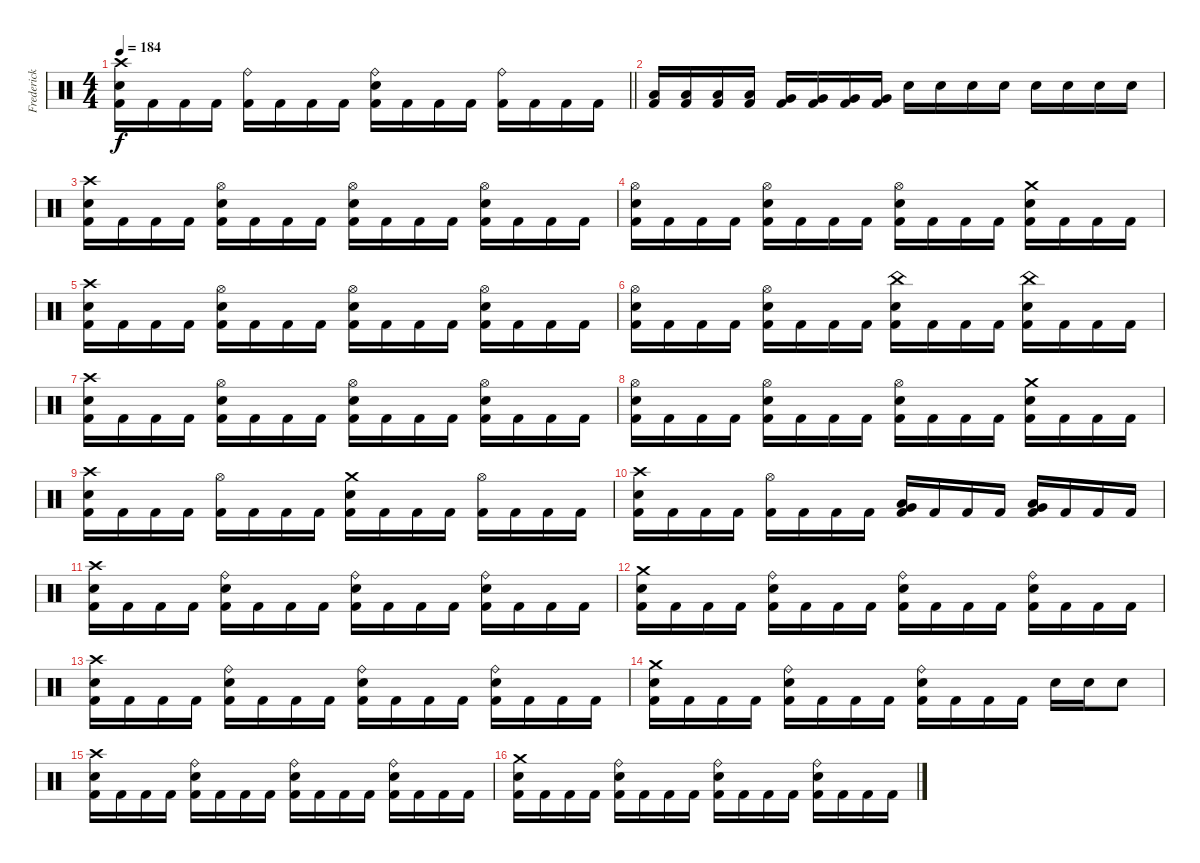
\track ("Frederick Ehmke" "Frederick ") {instrument percussion}
\staff {score}
\articulation defaults
\ts (4 4)
\tempo 184
\clef neutral
\barLineRight lightlight
\ks c
("Electric Snare (hit)" "Kick (hit) 2" "Crash high (hit)").16{dy f} "Kick (hit) 2".16 "Kick (hit) 2".16 "Kick (hit) 2".16 ("Kick (hit) 2" "Ride (bell)").16 "Kick (hit) 2".16 "Kick (hit) 2".16 "Kick (hit) 2".16 ("Electric Snare (hit)" "Kick (hit) 2" "Ride (bell)").16 "Kick (hit) 2".16 "Kick (hit) 2".16 "Kick (hit) 2".16 ("Kick (hit) 2" "Ride (bell)").16 "Kick (hit) 2".16 "Kick (hit) 2".16 "Kick (hit) 2".16 |
("Kick (hit) 2" "Low Tom (hit)").16 ("Kick (hit) 2" "Low Tom (hit)").16 ("Kick (hit) 2" "Low Tom (hit)").16 ("Kick (hit) 2" "Low Tom (hit)").16 ("Kick (hit) 2" "Very Low Tom (hit)").16 ("Kick (hit) 2" "Very Low Tom (hit)").16 ("Kick (hit) 2" "Very Low Tom (hit)").16 ("Kick (hit) 2" "Very Low Tom (hit)").16 "Electric Snare (hit)".16 "Electric Snare (hit)".16 "Electric Snare (hit)".16 "Electric Snare (hit)".16 "Electric Snare (hit)".16 "Electric Snare (hit)".16 "Electric Snare (hit)".16 "Electric Snare (hit)".16 |
("Electric Snare (hit)" "Kick (hit) 2" "Crash high (hit)").16 "Kick (hit) 2".16 "Kick (hit) 2".16 "Kick (hit) 2".16 ("Electric Snare (hit)" "Kick (hit) 2" "Hi-Hat (open)").16 "Kick (hit) 2".16 "Kick (hit) 2".16 "Kick (hit) 2".16 ("Electric Snare (hit)" "Kick (hit) 2" "Hi-Hat (open)").16 "Kick (hit) 2".16 "Kick (hit) 2".16 "Kick (hit) 2".16 ("Electric Snare (hit)" "Kick (hit) 2" "Hi-Hat (open)").16 "Kick (hit) 2".16 "Kick (hit) 2".16 "Kick (hit) 2".16 |
("Electric Snare (hit)" "Kick (hit) 2" "Hi-Hat (open)").16 "Kick (hit) 2".16 "Kick (hit) 2".16 "Kick (hit) 2".16 ("Electric Snare (hit)" "Kick (hit) 2" "Hi-Hat (open)").16 "Kick (hit) 2".16 "Kick (hit) 2".16 "Kick (hit) 2".16 ("Electric Snare (hit)" "Kick (hit) 2" "Hi-Hat (open)").16 "Kick (hit) 2".16 "Kick (hit) 2".16 "Kick (hit) 2".16 ("Electric Snare (hit)" "Kick (hit) 2" "Crash medium (hit)").16 "Kick (hit) 2".16 "Kick (hit) 2".16 "Kick (hit) 2".16 |
("Electric Snare (hit)" "Kick (hit) 2" "Crash high (hit)").16 "Kick (hit) 2".16 "Kick (hit) 2".16 "Kick (hit) 2".16 ("Electric Snare (hit)" "Kick (hit) 2" "Hi-Hat (open)").16 "Kick (hit) 2".16 "Kick (hit) 2".16 "Kick (hit) 2".16 ("Electric Snare (hit)" "Kick (hit) 2" "Hi-Hat (open)").16 "Kick (hit) 2".16 "Kick (hit) 2".16 "Kick (hit) 2".16 ("Electric Snare (hit)" "Kick (hit) 2" "Hi-Hat (open)").16 "Kick (hit) 2".16 "Kick (hit) 2".16 "Kick (hit) 2".16 |
("Electric Snare (hit)" "Kick (hit) 2" "Hi-Hat (open)").16 "Kick (hit) 2".16 "Kick (hit) 2".16 "Kick (hit) 2".16 ("Electric Snare (hit)" "Kick (hit) 2" "Hi-Hat (open)").16 "Kick (hit) 2".16 "Kick (hit) 2".16 "Kick (hit) 2".16 ("Electric Snare (hit)" "Kick (hit) 2" "China (hit)").16 "Kick (hit) 2".16 "Kick (hit) 2".16 "Kick (hit) 2".16 ("Electric Snare (hit)" "Kick (hit) 2" "China (hit)").16 "Kick (hit) 2".16 "Kick (hit) 2".16 "Kick (hit) 2".16 |
("Electric Snare (hit)" "Kick (hit) 2" "Crash high (hit)").16 "Kick (hit) 2".16 "Kick (hit) 2".16 "Kick (hit) 2".16 ("Electric Snare (hit)" "Kick (hit) 2" "Hi-Hat (open)").16 "Kick (hit) 2".16 "Kick (hit) 2".16 "Kick (hit) 2".16 ("Electric Snare (hit)" "Kick (hit) 2" "Hi-Hat (open)").16 "Kick (hit) 2".16 "Kick (hit) 2".16 "Kick (hit) 2".16 ("Electric Snare (hit)" "Kick (hit) 2" "Hi-Hat (open)").16 "Kick (hit) 2".16 "Kick (hit) 2".16 "Kick (hit) 2".16 |
("Electric Snare (hit)" "Kick (hit) 2" "Hi-Hat (open)").16 "Kick (hit) 2".16 "Kick (hit) 2".16 "Kick (hit) 2".16 ("Electric Snare (hit)" "Kick (hit) 2" "Hi-Hat (open)").16 "Kick (hit) 2".16 "Kick (hit) 2".16 "Kick (hit) 2".16 ("Electric Snare (hit)" "Kick (hit) 2" "Hi-Hat (open)").16 "Kick (hit) 2".16 "Kick (hit) 2".16 "Kick (hit) 2".16 ("Electric Snare (hit)" "Kick (hit) 2" "Crash medium (hit)").16 "Kick (hit) 2".16 "Kick (hit) 2".16 "Kick (hit) 2".16 |
("Electric Snare (hit)" "Kick (hit) 2" "Crash high (hit)").16 "Kick (hit) 2".16 "Kick (hit) 2".16 "Kick (hit) 2".16 ("Kick (hit) 2" "Hi-Hat (open)").16 "Kick (hit) 2".16 "Kick (hit) 2".16 "Kick (hit) 2".16 ("Electric Snare (hit)" "Kick (hit) 2" "Crash medium (hit)").16 "Kick (hit) 2".16 "Kick (hit) 2".16 "Kick (hit) 2".16 ("Kick (hit) 2" "Hi-Hat (open)").16 "Kick (hit) 2".16 "Kick (hit) 2".16 "Kick (hit) 2".16 |
("Electric Snare (hit)" "Kick (hit) 2" "Crash high (hit)").16 "Kick (hit) 2".16 "Kick (hit) 2".16 "Kick (hit) 2".16 ("Kick (hit) 2" "Hi-Hat (open)").16 "Kick (hit) 2".16 "Kick (hit) 2".16 "Kick (hit) 2".16 ("Kick (hit) 2" "Low Tom (hit)" "Very Low Tom (hit)").16 "Kick (hit) 2".16 "Kick (hit) 2".16 "Kick (hit) 2".16 ("Kick (hit) 2" "Low Tom (hit)" "Very Low Tom (hit)").16 "Kick (hit) 2".16 "Kick (hit) 2".16 "Kick (hit) 2".16 |
("Electric Snare (hit)" "Kick (hit) 2" "Crash high (hit)").16 "Kick (hit) 2".16 "Kick (hit) 2".16 "Kick (hit) 2".16 ("Electric Snare (hit)" "Kick (hit) 2" "Ride (bell)").16 "Kick (hit) 2".16 "Kick (hit) 2".16 "Kick (hit) 2".16 ("Electric Snare (hit)" "Kick (hit) 2" "Ride (bell)").16 "Kick (hit) 2".16 "Kick (hit) 2".16 "Kick (hit) 2".16 ("Electric Snare (hit)" "Kick (hit) 2" "Ride (bell)").16 "Kick (hit) 2".16 "Kick (hit) 2".16 "Kick (hit) 2".16 |
("Electric Snare (hit)" "Kick (hit) 2" "Crash medium (hit)").16 "Kick (hit) 2".16 "Kick (hit) 2".16 "Kick (hit) 2".16 ("Electric Snare (hit)" "Kick (hit) 2" "Ride (bell)").16 "Kick (hit) 2".16 "Kick (hit) 2".16 "Kick (hit) 2".16 ("Electric Snare (hit)" "Kick (hit) 2" "Ride (bell)").16 "Kick (hit) 2".16 "Kick (hit) 2".16 "Kick (hit) 2".16 ("Electric Snare (hit)" "Kick (hit) 2" "Ride (bell)").16 "Kick (hit) 2".16 "Kick (hit) 2".16 "Kick (hit) 2".16 |
("Electric Snare (hit)" "Kick (hit) 2" "Crash high (hit)").16 "Kick (hit) 2".16 "Kick (hit) 2".16 "Kick (hit) 2".16 ("Electric Snare (hit)" "Kick (hit) 2" "Ride (bell)").16 "Kick (hit) 2".16 "Kick (hit) 2".16 "Kick (hit) 2".16 ("Electric Snare (hit)" "Kick (hit) 2" "Ride (bell)").16 "Kick (hit) 2".16 "Kick (hit) 2".16 "Kick (hit) 2".16 ("Electric Snare (hit)" "Kick (hit) 2" "Ride (bell)").16 "Kick (hit) 2".16 "Kick (hit) 2".16 "Kick (hit) 2".16 |
("Electric Snare (hit)" "Kick (hit) 2" "Crash medium (hit)").16 "Kick (hit) 2".16 "Kick (hit) 2".16 "Kick (hit) 2".16 ("Electric Snare (hit)" "Kick (hit) 2" "Ride (bell)").16 "Kick (hit) 2".16 "Kick (hit) 2".16 "Kick (hit) 2".16 ("Electric Snare (hit)" "Kick (hit) 2" "Ride (bell)").16 "Kick (hit) 2".16 "Kick (hit) 2".16 "Kick (hit) 2".16 "Electric Snare (hit)".16 "Electric Snare (hit)".16 "Electric Snare (hit)".8 |
("Electric Snare (hit)" "Kick (hit) 2" "Crash high (hit)").16 "Kick (hit) 2".16 "Kick (hit) 2".16 "Kick (hit) 2".16 ("Electric Snare (hit)" "Kick (hit) 2" "Ride (bell)").16 "Kick (hit) 2".16 "Kick (hit) 2".16 "Kick (hit) 2".16 ("Electric Snare (hit)" "Kick (hit) 2" "Ride (bell)").16 "Kick (hit) 2".16 "Kick (hit) 2".16 "Kick (hit) 2".16 ("Electric Snare (hit)" "Kick (hit) 2" "Ride (bell)").16 "Kick (hit) 2".16 "Kick (hit) 2".16 "Kick (hit) 2".16 |
("Electric Snare (hit)" "Kick (hit) 2" "Crash medium (hit)").16 "Kick (hit) 2".16 "Kick (hit) 2".16 "Kick (hit) 2".16 ("Electric Snare (hit)" "Kick (hit) 2" "Ride (bell)").16 "Kick (hit) 2".16 "Kick (hit) 2".16 "Kick (hit) 2".16 ("Electric Snare (hit)" "Kick (hit) 2" "Ride (bell)").16 "Kick (hit) 2".16 "Kick (hit) 2".16 "Kick (hit) 2".16 ("Electric Snare (hit)" "Kick (hit) 2" "Ride (bell)").16 "Kick (hit) 2".16 "Kick (hit) 2".16 "Kick (hit) 2".16
